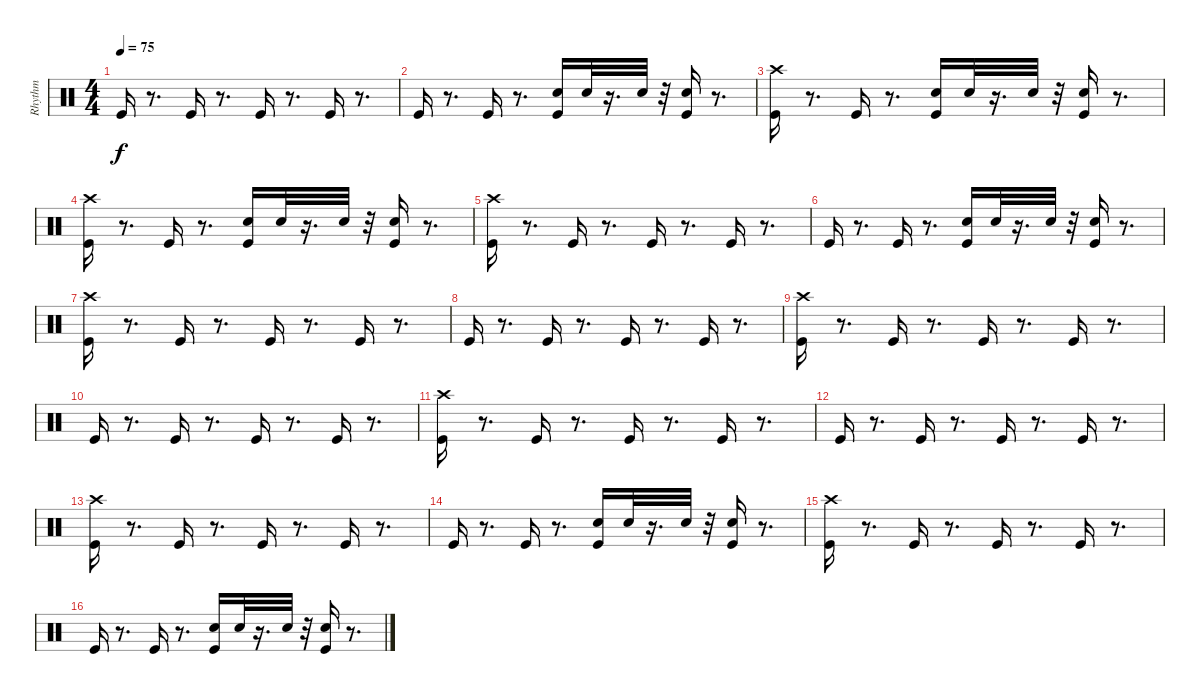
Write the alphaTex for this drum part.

\track ("Rhythm         " "Rhythm    ") {instrument percussion}
\staff {score}
\articulation defaults
\ts (4 4)
\tempo 75
\clef neutral
\ks c "Kick (hit)".16{dy f}
r.8{d} "Kick (hit)".16 r.8{d} "Kick (hit)".16 r.8{d} "Kick (hit)".16 r.8{d} |
"Kick (hit)".16 r.8{d} "Kick (hit)".16 r.8{d} ("Snare (hit) 2" "Kick (hit)").16 "Snare (hit) 2".32 r.16{d} "Snare (hit) 2".32 r.32 ("Snare (hit) 2" "Kick (hit)").16 r.8{d} |
("Crash high (hit)" "Kick (hit)").16 r.8{d} "Kick (hit)".16 r.8{d} ("Snare (hit) 2" "Kick (hit)").16 "Snare (hit) 2".32 r.16{d} "Snare (hit) 2".32 r.32 ("Snare (hit) 2" "Kick (hit)").16 r.8{d} |
("Crash high (hit)" "Kick (hit)").16 r.8{d} "Kick (hit)".16 r.8{d} ("Snare (hit) 2" "Kick (hit)").16 "Snare (hit) 2".32 r.16{d} "Snare (hit) 2".32 r.32 ("Snare (hit) 2" "Kick (hit)").16 r.8{d} |
("Crash high (hit)" "Kick (hit)").16 r.8{d} "Kick (hit)".16 r.8{d} "Kick (hit)".16 r.8{d} "Kick (hit)".16 r.8{d} |
"Kick (hit)".16 r.8{d} "Kick (hit)".16 r.8{d} ("Snare (hit) 2" "Kick (hit)").16 "Snare (hit) 2".32 r.16{d} "Snare (hit) 2".32 r.32 ("Snare (hit) 2" "Kick (hit)").16 r.8{d} |
("Crash high (hit)" "Kick (hit)").16 r.8{d} "Kick (hit)".16 r.8{d} "Kick (hit)".16 r.8{d} "Kick (hit)".16 r.8{d} |
"Kick (hit)".16 r.8{d} "Kick (hit)".16 r.8{d} "Kick (hit)".16 r.8{d} "Kick (hit)".16 r.8{d} |
("Crash high (hit)" "Kick (hit)").16 r.8{d} "Kick (hit)".16 r.8{d} "Kick (hit)".16 r.8{d} "Kick (hit)".16 r.8{d} |
"Kick (hit)".16 r.8{d} "Kick (hit)".16 r.8{d} "Kick (hit)".16 r.8{d} "Kick (hit)".16 r.8{d} |
("Crash high (hit)" "Kick (hit)").16 r.8{d} "Kick (hit)".16 r.8{d} "Kick (hit)".16 r.8{d} "Kick (hit)".16 r.8{d} |
"Kick (hit)".16 r.8{d} "Kick (hit)".16 r.8{d} "Kick (hit)".16 r.8{d} "Kick (hit)".16 r.8{d} |
("Crash high (hit)" "Kick (hit)").16 r.8{d} "Kick (hit)".16 r.8{d} "Kick (hit)".16 r.8{d} "Kick (hit)".16 r.8{d} |
"Kick (hit)".16 r.8{d} "Kick (hit)".16 r.8{d} ("Snare (hit) 2" "Kick (hit)").16 "Snare (hit) 2".32 r.16{d} "Snare (hit) 2".32 r.32 ("Snare (hit) 2" "Kick (hit)").16 r.8{d} |
("Crash high (hit)" "Kick (hit)").16 r.8{d} "Kick (hit)".16 r.8{d} "Kick (hit)".16 r.8{d} "Kick (hit)".16 r.8{d} |
"Kick (hit)".16 r.8{d} "Kick (hit)".16 r.8{d} ("Snare (hit) 2" "Kick (hit)").16 "Snare (hit) 2".32 r.16{d} "Snare (hit) 2".32 r.32 ("Snare (hit) 2" "Kick (hit)").16 r.8{d}
